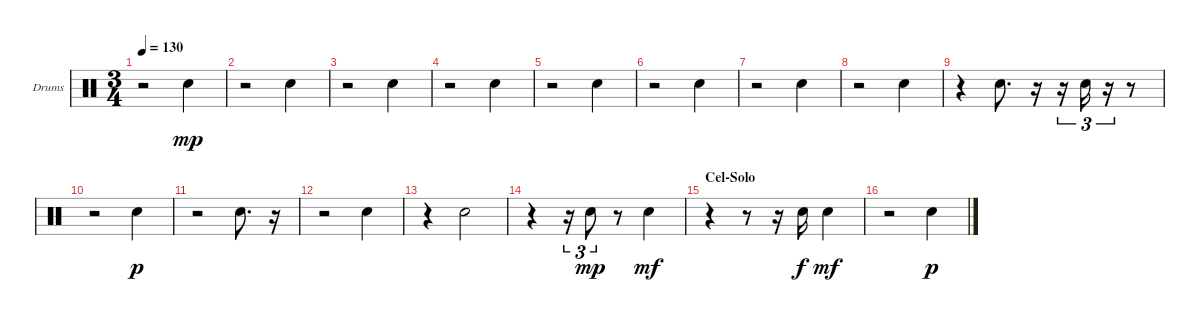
\bracketExtendMode groupsimilarinstruments
\firstSystemTrackNameOrientation horizontal
\otherSystemsTrackNameOrientation horizontal
\track ("Drums" "Drums") {instrument percussion}
\staff {score}
\articulation defaults
\ts (3 4)
\tempo 130
\clef neutral
\ks c
r.2{dy mp} "Snare (hit) 2".4 |
r.2 "Snare (hit) 2".4 |
r.2 "Snare (hit) 2".4 |
r.2 "Snare (hit) 2".4 |
r.2 "Snare (hit) 2".4 |
r.2 "Snare (hit) 2".4 |
r.2 "Snare (hit) 2".4 |
r.2 "Snare (hit) 2".4 |
r.4 "Snare (hit) 2".8{d} r.16 r.16{tu (3 2)} "Snare (hit) 2".16{tu (3 2)} r.16{tu (3 2)} r.8 |
r.2 "Snare (hit) 2".4{dy p} |
r.2 "Snare (hit) 2".8{d} r.16 |
r.2 "Snare (hit) 2".4 |
r.4 "Snare (hit) 2".2 |
r.4 r.16{tu (3 2)} "Snare (hit) 2".8{tu (3 2) dy mp} r.8 "Snare (hit) 2".4{dy mf} |
\section ("" "Cel-Solo")
r.4 r.8 r.16 "Snare (hit) 2".16{dy f} "Snare (hit) 2".4{dy mf} |
r.2 "Snare (hit) 2".4{dy p}
